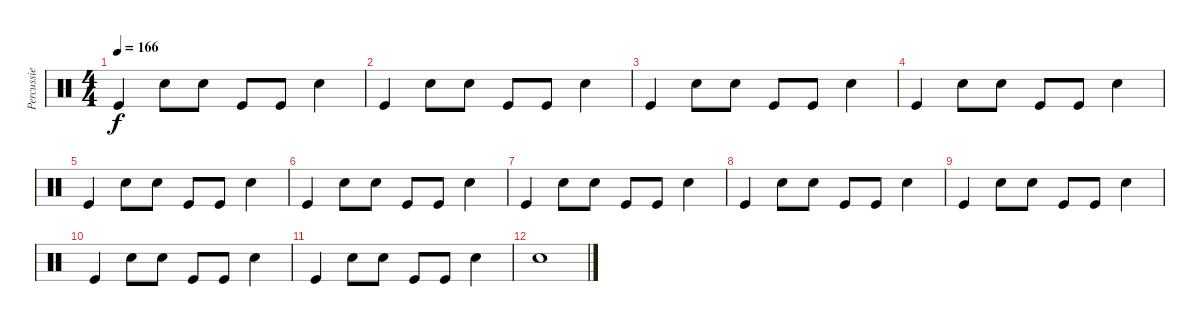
\track ("Percussie" "Percussie") {instrument percussion}
\staff {score}
\articulation defaults
\ts (4 4)
\tempo 166
\clef neutral
\ks c "Kick (hit)".4{dy f} "Electric Snare (hit)".8 "Electric Snare (hit)".8 "Kick (hit)".8 "Kick (hit)".8 "Electric Snare (hit)".4
|
"Kick (hit)".4 "Electric Snare (hit)".8 "Electric Snare (hit)".8 "Kick (hit)".8 "Kick (hit)".8 "Electric Snare (hit)".4 |
"Kick (hit)".4 "Electric Snare (hit)".8 "Electric Snare (hit)".8 "Kick (hit)".8 "Kick (hit)".8 "Electric Snare (hit)".4 |
"Kick (hit)".4 "Electric Snare (hit)".8 "Electric Snare (hit)".8 "Kick (hit)".8 "Kick (hit)".8 "Electric Snare (hit)".4 |
"Kick (hit)".4 "Electric Snare (hit)".8 "Electric Snare (hit)".8 "Kick (hit)".8 "Kick (hit)".8 "Electric Snare (hit)".4 |
"Kick (hit)".4 "Electric Snare (hit)".8 "Electric Snare (hit)".8 "Kick (hit)".8 "Kick (hit)".8 "Electric Snare (hit)".4 |
"Kick (hit)".4 "Electric Snare (hit)".8 "Electric Snare (hit)".8 "Kick (hit)".8 "Kick (hit)".8 "Electric Snare (hit)".4 |
"Kick (hit)".4 "Electric Snare (hit)".8 "Electric Snare (hit)".8 "Kick (hit)".8 "Kick (hit)".8 "Electric Snare (hit)".4 |
"Kick (hit)".4 "Electric Snare (hit)".8 "Electric Snare (hit)".8 "Kick (hit)".8 "Kick (hit)".8 "Electric Snare (hit)".4 |
"Kick (hit)".4 "Electric Snare (hit)".8 "Electric Snare (hit)".8 "Kick (hit)".8 "Kick (hit)".8 "Electric Snare (hit)".4 |
"Kick (hit)".4 "Electric Snare (hit)".8 "Electric Snare (hit)".8 "Kick (hit)".8 "Kick (hit)".8 "Electric Snare (hit)".4 |
"Electric Snare (hit)".1
